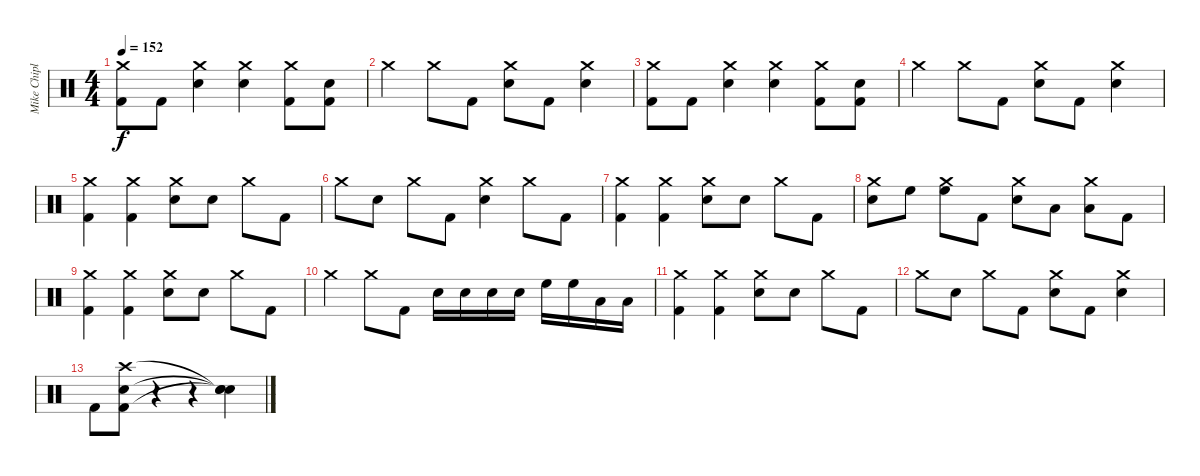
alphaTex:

\track ("Mike Chiplin" "Mike Chipl") {instrument percussion}
\staff {score}
\articulation defaults
\ts (4 4)
\tempo 152
\clef neutral
\ks c
("Crash medium (hit)" "Kick (hit) 2").8{dy f} "Kick (hit) 2".8 ("Crash medium (hit)" "Snare (hit) 2").4 ("Crash medium (hit)" "Snare (hit) 2").4 ("Crash medium (hit)" "Kick (hit) 2").8 ("Snare (hit) 2" "Kick (hit) 2").8 |
"Crash medium (hit)".4 "Crash medium (hit)".8 "Kick (hit) 2".8 ("Crash medium (hit)" "Snare (hit) 2").8 "Kick (hit) 2".8 ("Crash medium (hit)" "Snare (hit) 2").4 |
("Crash medium (hit)" "Kick (hit) 2").8 "Kick (hit) 2".8 ("Crash medium (hit)" "Snare (hit) 2").4 ("Crash medium (hit)" "Snare (hit) 2").4 ("Crash medium (hit)" "Kick (hit) 2").8 ("Snare (hit) 2" "Kick (hit) 2").8 |
"Crash medium (hit)".4 "Crash medium (hit)".8 "Kick (hit) 2".8 ("Crash medium (hit)" "Snare (hit) 2").8 "Kick (hit) 2".8 ("Crash medium (hit)" "Snare (hit) 2").4 |
("Crash medium (hit)" "Kick (hit) 2").4 ("Crash medium (hit)" "Kick (hit) 2").4 ("Crash medium (hit)" "Snare (hit) 2").8 "Snare (hit) 2".8 "Crash medium (hit)".8 "Kick (hit) 2".8 |
"Crash medium (hit)".8 "Snare (hit) 2".8 "Crash medium (hit)".8 "Kick (hit) 2".8 ("Crash medium (hit)" "Snare (hit) 2").4 "Crash medium (hit)".8 "Kick (hit) 2".8 |
("Crash medium (hit)" "Kick (hit) 2").4 ("Crash medium (hit)" "Kick (hit) 2").4 ("Crash medium (hit)" "Snare (hit) 2").8 "Snare (hit) 2".8 "Crash medium (hit)".8 "Kick (hit) 2".8 |
("Crash medium (hit)" "Snare (hit) 2").8 "High Floor Tom (hit)".8 ("Crash medium (hit)" "High Floor Tom (hit)").8 "Kick (hit) 2".8 ("Crash medium (hit)" "Snare (hit) 2").8 "Low Floor Tom (hit)".8 ("Crash medium (hit)" "Low Floor Tom (hit)").8 "Kick (hit) 2".8 |
("Crash medium (hit)" "Kick (hit) 2").4 ("Crash medium (hit)" "Kick (hit) 2").4 ("Crash medium (hit)" "Snare (hit) 2").8 "Snare (hit) 2".8 "Crash medium (hit)".8 "Kick (hit) 2".8 |
"Crash medium (hit)".4 "Crash medium (hit)".8 "Kick (hit) 2".8 "Snare (hit) 2".16 "Snare (hit) 2".16 "Snare (hit) 2".16 "Snare (hit) 2".16 "High Floor Tom (hit)".16 "High Floor Tom (hit)".16 "Low Floor Tom (hit)".16 "Low Floor Tom (hit)".16 |
("Crash medium (hit)" "Kick (hit) 2").4 ("Crash medium (hit)" "Kick (hit) 2").4 ("Crash medium (hit)" "Snare (hit) 2").8 "Snare (hit) 2".8 "Crash medium (hit)".8 "Kick (hit) 2".8 |
"Crash medium (hit)".8 "Snare (hit) 2".8 "Crash medium (hit)".8 "Kick (hit) 2".8 ("Crash medium (hit)" "Snare (hit) 2").8 "Kick (hit) 2".8 ("Crash medium (hit)" "Snare (hit) 2").4 |
"Kick (hit) 2".8 ("Crash high (hit)" "Snare (hit) 2" "Kick (hit) 2").8 r.4 r.4 ("Snare (hit)"{t} "Snare (hit)"{t} "Snare (hit)"{t}).4
